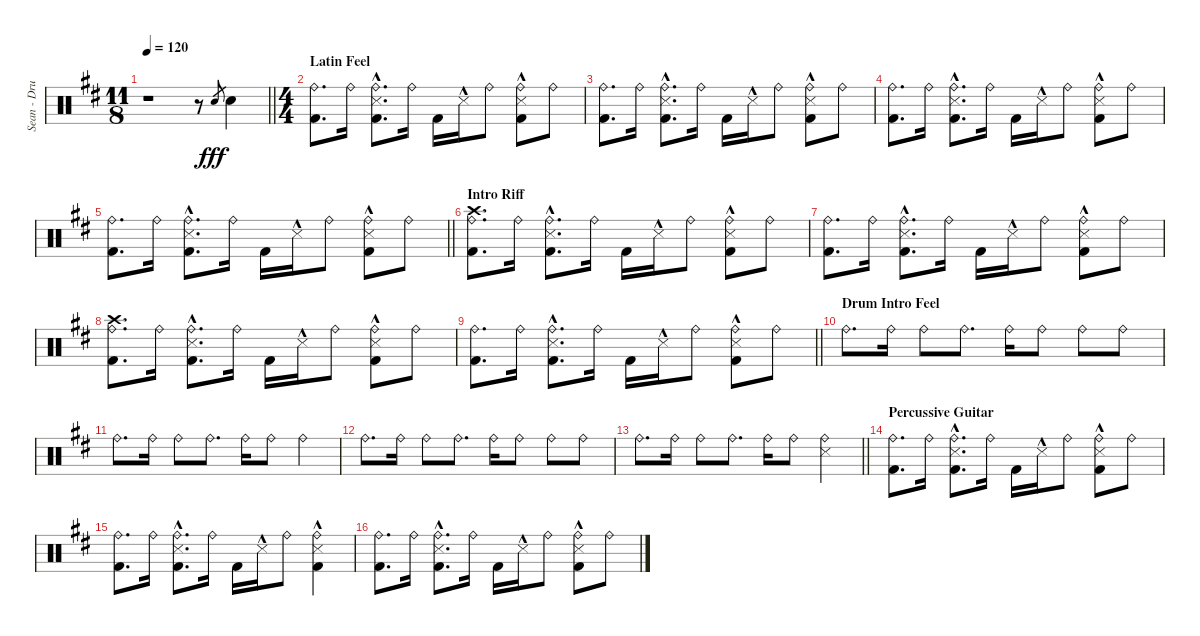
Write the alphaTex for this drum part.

\track ("Sean - Drums" "Sean - Dru") {instrument percussion}
\staff {score}
\articulation defaults
\ts (11 8)
\tempo 120
\clef neutral
\barLineRight lightlight
\ks d
r.1{dy fff} r.8 "Snare (hit) 2".8{gr} "Snare (hit) 2".4 |
\ts (4 4)
\section ("" "Latin Feel")
("Ride (bell)" "Kick (hit) 2").8{d} "Ride (bell)".16 ("Ride (bell)" "Metronome (hit)"{hac} "Kick (hit) 2").8{d} "Ride (bell)".16 "Kick (hit) 2".16 "Metronome (hit)"{hac}.16 "Ride (bell)".8 ("Ride (bell)" "Metronome (hit)"{hac} "Kick (hit) 2").8 "Ride (bell)".8 |
("Ride (bell)" "Kick (hit) 2").8{d} "Ride (bell)".16 ("Ride (bell)" "Metronome (hit)"{hac} "Kick (hit) 2").8{d} "Ride (bell)".16 "Kick (hit) 2".16 "Metronome (hit)"{hac}.16 "Ride (bell)".8 ("Ride (bell)" "Metronome (hit)"{hac} "Kick (hit) 2").8 "Ride (bell)".8 |
("Ride (bell)" "Kick (hit) 2").8{d} "Ride (bell)".16 ("Ride (bell)" "Metronome (hit)"{hac} "Kick (hit) 2").8{d} "Ride (bell)".16 "Kick (hit) 2".16 "Metronome (hit)"{hac}.16 "Ride (bell)".8 ("Ride (bell)" "Metronome (hit)"{hac} "Kick (hit) 2").8 "Ride (bell)".8 |
\barLineRight lightlight
("Ride (bell)" "Kick (hit) 2").8{d} "Ride (bell)".16 ("Ride (bell)" "Metronome (hit)"{hac} "Kick (hit) 2").8{d} "Ride (bell)".16 "Kick (hit) 2".16 "Metronome (hit)"{hac}.16 "Ride (bell)".8 ("Ride (bell)" "Metronome (hit)"{hac} "Kick (hit) 2").8 "Ride (bell)".8 |
\section ("" "Intro Riff")
("Ride (bell)" "Crash high (hit)" "Kick (hit) 2").8{d} "Ride (bell)".16 ("Ride (bell)" "Metronome (hit)"{hac} "Kick (hit) 2").8{d} "Ride (bell)".16 "Kick (hit) 2".16 "Metronome (hit)"{hac}.16 "Ride (bell)".8 ("Ride (bell)" "Metronome (hit)"{hac} "Kick (hit) 2").8 "Ride (bell)".8 |
("Ride (bell)" "Kick (hit) 2").8{d} "Ride (bell)".16 ("Ride (bell)" "Metronome (hit)"{hac} "Kick (hit) 2").8{d} "Ride (bell)".16 "Kick (hit) 2".16 "Metronome (hit)"{hac}.16 "Ride (bell)".8 ("Ride (bell)" "Metronome (hit)"{hac} "Kick (hit) 2").8 "Ride (bell)".8 |
("Ride (bell)" "Crash high (hit)" "Kick (hit) 2").8{d} "Ride (bell)".16 ("Ride (bell)" "Metronome (hit)"{hac} "Kick (hit) 2").8{d} "Ride (bell)".16 "Kick (hit) 2".16 "Metronome (hit)"{hac}.16 "Ride (bell)".8 ("Ride (bell)" "Metronome (hit)"{hac} "Kick (hit) 2").8 "Ride (bell)".8 |
\barLineRight lightlight
("Ride (bell)" "Kick (hit) 2").8{d} "Ride (bell)".16 ("Ride (bell)" "Metronome (hit)"{hac} "Kick (hit) 2").8{d} "Ride (bell)".16 "Kick (hit) 2".16 "Metronome (hit)"{hac}.16 "Ride (bell)".8 ("Ride (bell)" "Metronome (hit)"{hac} "Kick (hit) 2").8 "Ride (bell)".8 |
\section ("" "Drum Intro Feel")
"Ride (bell)".8{d} "Ride (bell)".16 "Ride (bell)".8 "Ride (bell)".8{d} "Ride (bell)".16 "Ride (bell)".8 "Ride (bell)".8 "Ride (bell)".8 |
"Ride (bell)".8{d} "Ride (bell)".16 "Ride (bell)".8 "Ride (bell)".8{d} "Ride (bell)".16 "Ride (bell)".8 "Ride (bell)".4 |
"Ride (bell)".8{d} "Ride (bell)".16 "Ride (bell)".8 "Ride (bell)".8{d} "Ride (bell)".16 "Ride (bell)".8 "Ride (bell)".8 "Ride (bell)".8 |
\barLineRight lightlight "Ride (bell)".8{d} "Ride (bell)".16 "Ride (bell)".8 "Ride (bell)".8{d} "Ride (bell)".16 "Ride (bell)".8
("Ride (bell)" "Metronome (hit)").4 |
\section ("" "Percussive Guitar")
("Ride (bell)" "Kick (hit) 2").8{d} "Ride (bell)".16 ("Ride (bell)" "Metronome (hit)"{hac} "Kick (hit) 2").8{d} "Ride (bell)".16 "Kick (hit) 2".16 "Metronome (hit)"{hac}.16 "Ride (bell)".8 ("Ride (bell)" "Metronome (hit)"{hac} "Kick (hit) 2").8 "Ride (bell)".8 |
("Ride (bell)" "Kick (hit) 2").8{d} "Ride (bell)".16 ("Ride (bell)" "Metronome (hit)"{hac} "Kick (hit) 2").8{d} "Ride (bell)".16 "Kick (hit) 2".16 "Metronome (hit)"{hac}.16 "Ride (bell)".8 ("Ride (bell)" "Metronome (hit)"{hac} "Kick (hit) 2").4 |
("Ride (bell)" "Kick (hit) 2").8{d} "Ride (bell)".16 ("Ride (bell)" "Metronome (hit)"{hac} "Kick (hit) 2").8{d} "Ride (bell)".16 "Kick (hit) 2".16 "Metronome (hit)"{hac}.16 "Ride (bell)".8 ("Ride (bell)" "Metronome (hit)"{hac} "Kick (hit) 2").8 "Ride (bell)".8
